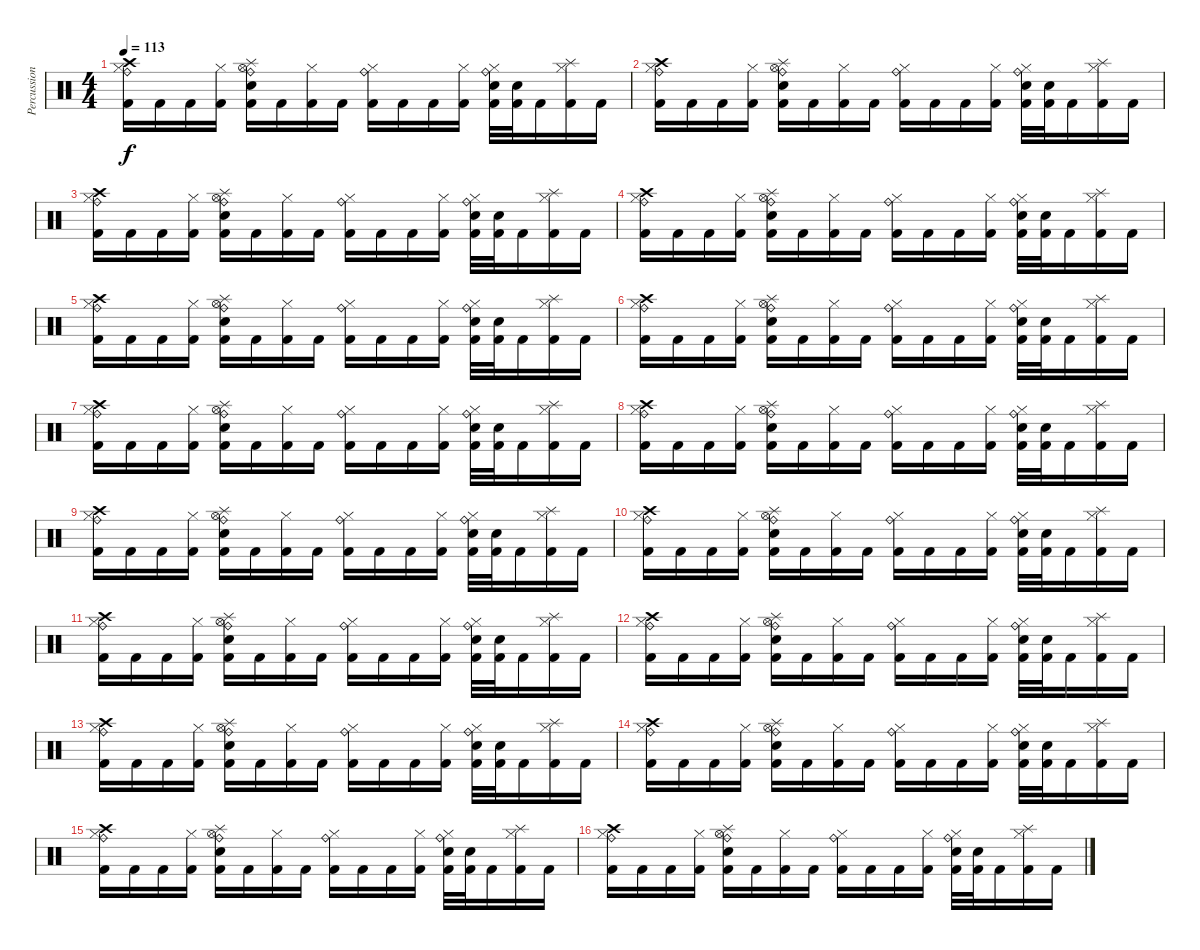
\track ("Percussion" "Percussion") {instrument percussion}
\staff {score}
\articulation defaults
\ts (4 4)
\tempo 113
\clef neutral
\ks c
("Ride (bell)" "Crash high (hit)" "Hi-Hat (closed)" "Kick (hit) 2").16{dy f} "Kick (hit) 2".16 "Kick (hit) 2".16 ("Hi-Hat (closed)" "Kick (hit) 2").16 ("Ride (bell)" "Hi-Hat (open)" "Splash (hit)" "Snare (hit) 2" "Kick (hit) 2").16 "Kick (hit) 2".16 ("Hi-Hat (closed)" "Kick (hit) 2").16 "Kick (hit) 2".16 ("Ride (bell)" "Hi-Hat (closed)" "Kick (hit) 2").16 "Kick (hit) 2".16 "Kick (hit) 2".16 ("Hi-Hat (closed)" "Kick (hit) 2").16 ("Ride (bell)" "Hi-Hat (closed)" "Snare (hit) 2" "Kick (hit) 2").32 ("Snare (hit) 2" "Kick (hit) 2").32 "Kick (hit) 2".16 ("Hi-Hat (closed)" "Splash (hit)" "Kick (hit) 2").16 "Kick (hit) 2".16 |
("Ride (bell)" "Crash high (hit)" "Hi-Hat (closed)" "Kick (hit) 2").16 "Kick (hit) 2".16 "Kick (hit) 2".16 ("Hi-Hat (closed)" "Kick (hit) 2").16 ("Ride (bell)" "Hi-Hat (open)" "Splash (hit)" "Snare (hit) 2" "Kick (hit) 2").16 "Kick (hit) 2".16 ("Hi-Hat (closed)" "Kick (hit) 2").16 "Kick (hit) 2".16 ("Ride (bell)" "Hi-Hat (closed)" "Kick (hit) 2").16 "Kick (hit) 2".16 "Kick (hit) 2".16 ("Hi-Hat (closed)" "Kick (hit) 2").16 ("Ride (bell)" "Hi-Hat (closed)" "Snare (hit) 2" "Kick (hit) 2").32 ("Snare (hit) 2" "Kick (hit) 2").32 "Kick (hit) 2".16 ("Hi-Hat (closed)" "Splash (hit)" "Kick (hit) 2").16 "Kick (hit) 2".16 |
("Ride (bell)" "Crash high (hit)" "Hi-Hat (closed)" "Kick (hit) 2").16 "Kick (hit) 2".16 "Kick (hit) 2".16 ("Hi-Hat (closed)" "Kick (hit) 2").16 ("Ride (bell)" "Hi-Hat (open)" "Splash (hit)" "Snare (hit) 2" "Kick (hit) 2").16 "Kick (hit) 2".16 ("Hi-Hat (closed)" "Kick (hit) 2").16 "Kick (hit) 2".16 ("Ride (bell)" "Hi-Hat (closed)" "Kick (hit) 2").16 "Kick (hit) 2".16 "Kick (hit) 2".16 ("Hi-Hat (closed)" "Kick (hit) 2").16 ("Ride (bell)" "Hi-Hat (closed)" "Snare (hit) 2" "Kick (hit) 2").32 ("Snare (hit) 2" "Kick (hit) 2").32 "Kick (hit) 2".16 ("Hi-Hat (closed)" "Splash (hit)" "Kick (hit) 2").16 "Kick (hit) 2".16 |
("Ride (bell)" "Crash high (hit)" "Hi-Hat (closed)" "Kick (hit) 2").16 "Kick (hit) 2".16 "Kick (hit) 2".16 ("Hi-Hat (closed)" "Kick (hit) 2").16 ("Ride (bell)" "Hi-Hat (open)" "Splash (hit)" "Snare (hit) 2" "Kick (hit) 2").16 "Kick (hit) 2".16 ("Hi-Hat (closed)" "Kick (hit) 2").16 "Kick (hit) 2".16 ("Ride (bell)" "Hi-Hat (closed)" "Kick (hit) 2").16 "Kick (hit) 2".16 "Kick (hit) 2".16 ("Hi-Hat (closed)" "Kick (hit) 2").16 ("Ride (bell)" "Hi-Hat (closed)" "Snare (hit) 2" "Kick (hit) 2").32 ("Snare (hit) 2" "Kick (hit) 2").32 "Kick (hit) 2".16 ("Hi-Hat (closed)" "Splash (hit)" "Kick (hit) 2").16 "Kick (hit) 2".16 |
("Ride (bell)" "Crash high (hit)" "Hi-Hat (closed)" "Kick (hit) 2").16 "Kick (hit) 2".16 "Kick (hit) 2".16 ("Hi-Hat (closed)" "Kick (hit) 2").16 ("Ride (bell)" "Hi-Hat (open)" "Splash (hit)" "Snare (hit) 2" "Kick (hit) 2").16 "Kick (hit) 2".16 ("Hi-Hat (closed)" "Kick (hit) 2").16 "Kick (hit) 2".16 ("Ride (bell)" "Hi-Hat (closed)" "Kick (hit) 2").16 "Kick (hit) 2".16 "Kick (hit) 2".16 ("Hi-Hat (closed)" "Kick (hit) 2").16 ("Ride (bell)" "Hi-Hat (closed)" "Snare (hit) 2" "Kick (hit) 2").32 ("Snare (hit) 2" "Kick (hit) 2").32 "Kick (hit) 2".16 ("Hi-Hat (closed)" "Splash (hit)" "Kick (hit) 2").16 "Kick (hit) 2".16 |
("Ride (bell)" "Crash high (hit)" "Hi-Hat (closed)" "Kick (hit) 2").16 "Kick (hit) 2".16 "Kick (hit) 2".16 ("Hi-Hat (closed)" "Kick (hit) 2").16 ("Ride (bell)" "Hi-Hat (open)" "Splash (hit)" "Snare (hit) 2" "Kick (hit) 2").16 "Kick (hit) 2".16 ("Hi-Hat (closed)" "Kick (hit) 2").16 "Kick (hit) 2".16 ("Ride (bell)" "Hi-Hat (closed)" "Kick (hit) 2").16 "Kick (hit) 2".16 "Kick (hit) 2".16 ("Hi-Hat (closed)" "Kick (hit) 2").16 ("Ride (bell)" "Hi-Hat (closed)" "Snare (hit) 2" "Kick (hit) 2").32 ("Snare (hit) 2" "Kick (hit) 2").32 "Kick (hit) 2".16 ("Hi-Hat (closed)" "Splash (hit)" "Kick (hit) 2").16 "Kick (hit) 2".16 |
("Ride (bell)" "Crash high (hit)" "Hi-Hat (closed)" "Kick (hit) 2").16 "Kick (hit) 2".16 "Kick (hit) 2".16 ("Hi-Hat (closed)" "Kick (hit) 2").16 ("Ride (bell)" "Hi-Hat (open)" "Splash (hit)" "Snare (hit) 2" "Kick (hit) 2").16 "Kick (hit) 2".16 ("Hi-Hat (closed)" "Kick (hit) 2").16 "Kick (hit) 2".16 ("Ride (bell)" "Hi-Hat (closed)" "Kick (hit) 2").16 "Kick (hit) 2".16 "Kick (hit) 2".16 ("Hi-Hat (closed)" "Kick (hit) 2").16 ("Ride (bell)" "Hi-Hat (closed)" "Snare (hit) 2" "Kick (hit) 2").32 ("Snare (hit) 2" "Kick (hit) 2").32 "Kick (hit) 2".16 ("Hi-Hat (closed)" "Splash (hit)" "Kick (hit) 2").16 "Kick (hit) 2".16 |
("Ride (bell)" "Crash high (hit)" "Hi-Hat (closed)" "Kick (hit) 2").16 "Kick (hit) 2".16 "Kick (hit) 2".16 ("Hi-Hat (closed)" "Kick (hit) 2").16 ("Ride (bell)" "Hi-Hat (open)" "Splash (hit)" "Snare (hit) 2" "Kick (hit) 2").16 "Kick (hit) 2".16 ("Hi-Hat (closed)" "Kick (hit) 2").16 "Kick (hit) 2".16 ("Ride (bell)" "Hi-Hat (closed)" "Kick (hit) 2").16 "Kick (hit) 2".16 "Kick (hit) 2".16 ("Hi-Hat (closed)" "Kick (hit) 2").16 ("Ride (bell)" "Hi-Hat (closed)" "Snare (hit) 2" "Kick (hit) 2").32 ("Snare (hit) 2" "Kick (hit) 2").32 "Kick (hit) 2".16 ("Hi-Hat (closed)" "Splash (hit)" "Kick (hit) 2").16 "Kick (hit) 2".16 |
("Ride (bell)" "Crash high (hit)" "Hi-Hat (closed)" "Kick (hit) 2").16 "Kick (hit) 2".16 "Kick (hit) 2".16 ("Hi-Hat (closed)" "Kick (hit) 2").16 ("Ride (bell)" "Hi-Hat (open)" "Splash (hit)" "Snare (hit) 2" "Kick (hit) 2").16 "Kick (hit) 2".16 ("Hi-Hat (closed)" "Kick (hit) 2").16 "Kick (hit) 2".16 ("Ride (bell)" "Hi-Hat (closed)" "Kick (hit) 2").16 "Kick (hit) 2".16 "Kick (hit) 2".16 ("Hi-Hat (closed)" "Kick (hit) 2").16 ("Ride (bell)" "Hi-Hat (closed)" "Snare (hit) 2" "Kick (hit) 2").32 ("Snare (hit) 2" "Kick (hit) 2").32 "Kick (hit) 2".16 ("Hi-Hat (closed)" "Splash (hit)" "Kick (hit) 2").16 "Kick (hit) 2".16 |
("Ride (bell)" "Crash high (hit)" "Hi-Hat (closed)" "Kick (hit) 2").16 "Kick (hit) 2".16 "Kick (hit) 2".16 ("Hi-Hat (closed)" "Kick (hit) 2").16 ("Ride (bell)" "Hi-Hat (open)" "Splash (hit)" "Snare (hit) 2" "Kick (hit) 2").16 "Kick (hit) 2".16 ("Hi-Hat (closed)" "Kick (hit) 2").16 "Kick (hit) 2".16 ("Ride (bell)" "Hi-Hat (closed)" "Kick (hit) 2").16 "Kick (hit) 2".16 "Kick (hit) 2".16 ("Hi-Hat (closed)" "Kick (hit) 2").16 ("Ride (bell)" "Hi-Hat (closed)" "Snare (hit) 2" "Kick (hit) 2").32 ("Snare (hit) 2" "Kick (hit) 2").32 "Kick (hit) 2".16 ("Hi-Hat (closed)" "Splash (hit)" "Kick (hit) 2").16 "Kick (hit) 2".16 |
("Ride (bell)" "Crash high (hit)" "Hi-Hat (closed)" "Kick (hit) 2").16 "Kick (hit) 2".16 "Kick (hit) 2".16 ("Hi-Hat (closed)" "Kick (hit) 2").16 ("Ride (bell)" "Hi-Hat (open)" "Splash (hit)" "Snare (hit) 2" "Kick (hit) 2").16 "Kick (hit) 2".16 ("Hi-Hat (closed)" "Kick (hit) 2").16 "Kick (hit) 2".16 ("Ride (bell)" "Hi-Hat (closed)" "Kick (hit) 2").16 "Kick (hit) 2".16 "Kick (hit) 2".16 ("Hi-Hat (closed)" "Kick (hit) 2").16 ("Ride (bell)" "Hi-Hat (closed)" "Snare (hit) 2" "Kick (hit) 2").32 ("Snare (hit) 2" "Kick (hit) 2").32 "Kick (hit) 2".16 ("Hi-Hat (closed)" "Splash (hit)" "Kick (hit) 2").16 "Kick (hit) 2".16 |
("Ride (bell)" "Crash high (hit)" "Hi-Hat (closed)" "Kick (hit) 2").16 "Kick (hit) 2".16 "Kick (hit) 2".16 ("Hi-Hat (closed)" "Kick (hit) 2").16 ("Ride (bell)" "Hi-Hat (open)" "Splash (hit)" "Snare (hit) 2" "Kick (hit) 2").16 "Kick (hit) 2".16 ("Hi-Hat (closed)" "Kick (hit) 2").16 "Kick (hit) 2".16 ("Ride (bell)" "Hi-Hat (closed)" "Kick (hit) 2").16 "Kick (hit) 2".16 "Kick (hit) 2".16 ("Hi-Hat (closed)" "Kick (hit) 2").16 ("Ride (bell)" "Hi-Hat (closed)" "Snare (hit) 2" "Kick (hit) 2").32 ("Snare (hit) 2" "Kick (hit) 2").32 "Kick (hit) 2".16 ("Hi-Hat (closed)" "Splash (hit)" "Kick (hit) 2").16 "Kick (hit) 2".16 |
("Ride (bell)" "Crash high (hit)" "Hi-Hat (closed)" "Kick (hit) 2").16 "Kick (hit) 2".16 "Kick (hit) 2".16 ("Hi-Hat (closed)" "Kick (hit) 2").16 ("Ride (bell)" "Hi-Hat (open)" "Splash (hit)" "Snare (hit) 2" "Kick (hit) 2").16 "Kick (hit) 2".16 ("Hi-Hat (closed)" "Kick (hit) 2").16 "Kick (hit) 2".16 ("Ride (bell)" "Hi-Hat (closed)" "Kick (hit) 2").16 "Kick (hit) 2".16 "Kick (hit) 2".16 ("Hi-Hat (closed)" "Kick (hit) 2").16 ("Ride (bell)" "Hi-Hat (closed)" "Snare (hit) 2" "Kick (hit) 2").32 ("Snare (hit) 2" "Kick (hit) 2").32 "Kick (hit) 2".16 ("Hi-Hat (closed)" "Splash (hit)" "Kick (hit) 2").16 "Kick (hit) 2".16 |
("Ride (bell)" "Crash high (hit)" "Hi-Hat (closed)" "Kick (hit) 2").16 "Kick (hit) 2".16 "Kick (hit) 2".16 ("Hi-Hat (closed)" "Kick (hit) 2").16 ("Ride (bell)" "Hi-Hat (open)" "Splash (hit)" "Snare (hit) 2" "Kick (hit) 2").16 "Kick (hit) 2".16 ("Hi-Hat (closed)" "Kick (hit) 2").16 "Kick (hit) 2".16 ("Ride (bell)" "Hi-Hat (closed)" "Kick (hit) 2").16 "Kick (hit) 2".16 "Kick (hit) 2".16 ("Hi-Hat (closed)" "Kick (hit) 2").16 ("Ride (bell)" "Hi-Hat (closed)" "Snare (hit) 2" "Kick (hit) 2").32 ("Snare (hit) 2" "Kick (hit) 2").32 "Kick (hit) 2".16 ("Hi-Hat (closed)" "Splash (hit)" "Kick (hit) 2").16 "Kick (hit) 2".16 |
("Ride (bell)" "Crash high (hit)" "Hi-Hat (closed)" "Kick (hit) 2").16 "Kick (hit) 2".16 "Kick (hit) 2".16 ("Hi-Hat (closed)" "Kick (hit) 2").16 ("Ride (bell)" "Hi-Hat (open)" "Splash (hit)" "Snare (hit) 2" "Kick (hit) 2").16 "Kick (hit) 2".16 ("Hi-Hat (closed)" "Kick (hit) 2").16 "Kick (hit) 2".16 ("Ride (bell)" "Hi-Hat (closed)" "Kick (hit) 2").16 "Kick (hit) 2".16 "Kick (hit) 2".16 ("Hi-Hat (closed)" "Kick (hit) 2").16 ("Ride (bell)" "Hi-Hat (closed)" "Snare (hit) 2" "Kick (hit) 2").32 ("Snare (hit) 2" "Kick (hit) 2").32 "Kick (hit) 2".16 ("Hi-Hat (closed)" "Splash (hit)" "Kick (hit) 2").16 "Kick (hit) 2".16 |
("Ride (bell)" "Crash high (hit)" "Hi-Hat (closed)" "Kick (hit) 2").16 "Kick (hit) 2".16 "Kick (hit) 2".16 ("Hi-Hat (closed)" "Kick (hit) 2").16 ("Ride (bell)" "Hi-Hat (open)" "Splash (hit)" "Snare (hit) 2" "Kick (hit) 2").16 "Kick (hit) 2".16 ("Hi-Hat (closed)" "Kick (hit) 2").16 "Kick (hit) 2".16 ("Ride (bell)" "Hi-Hat (closed)" "Kick (hit) 2").16 "Kick (hit) 2".16 "Kick (hit) 2".16 ("Hi-Hat (closed)" "Kick (hit) 2").16 ("Ride (bell)" "Hi-Hat (closed)" "Snare (hit) 2" "Kick (hit) 2").32 ("Snare (hit) 2" "Kick (hit) 2").32 "Kick (hit) 2".16 ("Hi-Hat (closed)" "Splash (hit)" "Kick (hit) 2").16 "Kick (hit) 2".16
